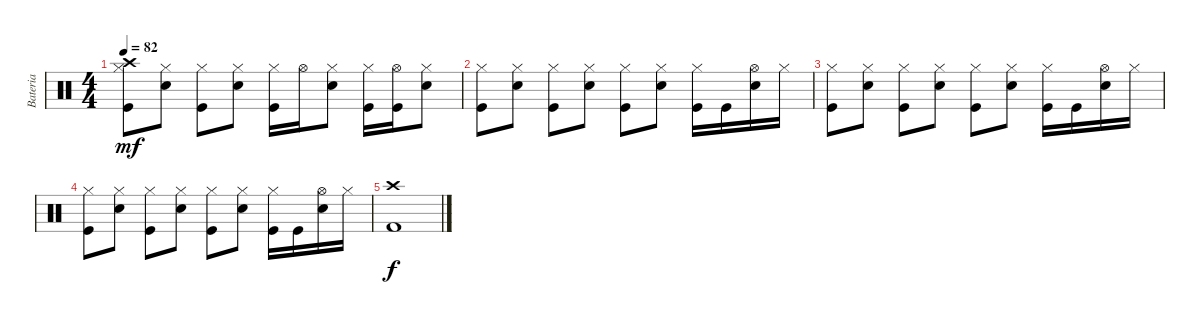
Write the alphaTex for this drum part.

\track ("Bateria" "Bateria") {instrument percussion}
\staff {score}
\articulation defaults
\ts (4 4)
\tempo 82
\clef neutral
\ks c
("Kick (hit)" "Hi-Hat (closed)" "Crash high (hit)").8{dy mf} ("Snare (hit) 2" "Hi-Hat (closed)").8 ("Kick (hit)" "Hi-Hat (closed)").8 ("Hi-Hat (closed)" "Snare (hit) 2").8 ("Kick (hit)" "Hi-Hat (closed)").16 "Hi-Hat (open)".16 ("Snare (hit) 2" "Hi-Hat (closed)").8 ("Kick (hit)" "Hi-Hat (closed)").16 ("Kick (hit)" "Hi-Hat (open)").16 ("Hi-Hat (closed)" "Snare (hit) 2").8 |
("Kick (hit)" "Hi-Hat (closed)").8 ("Snare (hit) 2" "Hi-Hat (closed)").8 ("Kick (hit)" "Hi-Hat (closed)").8 ("Hi-Hat (closed)" "Snare (hit) 2").8 ("Kick (hit)" "Hi-Hat (closed)").8 ("Snare (hit) 2" "Hi-Hat (closed)").8 ("Kick (hit)" "Hi-Hat (closed)").16 "Kick (hit)".16 ("Hi-Hat (open)" "Snare (hit) 2").16 "Hi-Hat (closed)".16 |
("Kick (hit)" "Hi-Hat (closed)").8 ("Snare (hit) 2" "Hi-Hat (closed)").8 ("Kick (hit)" "Hi-Hat (closed)").8 ("Hi-Hat (closed)" "Snare (hit) 2").8 ("Kick (hit)" "Hi-Hat (closed)").8 ("Snare (hit) 2" "Hi-Hat (closed)").8 ("Kick (hit)" "Hi-Hat (closed)").16 "Kick (hit)".16 ("Hi-Hat (open)" "Snare (hit) 2").16 "Hi-Hat (closed)".16 |
("Kick (hit)" "Hi-Hat (closed)").8 ("Snare (hit) 2" "Hi-Hat (closed)").8 ("Kick (hit)" "Hi-Hat (closed)").8 ("Hi-Hat (closed)" "Snare (hit) 2").8 ("Kick (hit)" "Hi-Hat (closed)").8 ("Snare (hit) 2" "Hi-Hat (closed)").8 ("Kick (hit)" "Hi-Hat (closed)").16 "Kick (hit)".16 ("Hi-Hat (open)" "Snare (hit) 2").16 "Hi-Hat (closed)".16 |
("Kick (hit) 2" "Crash high (hit)").1{dy f}
